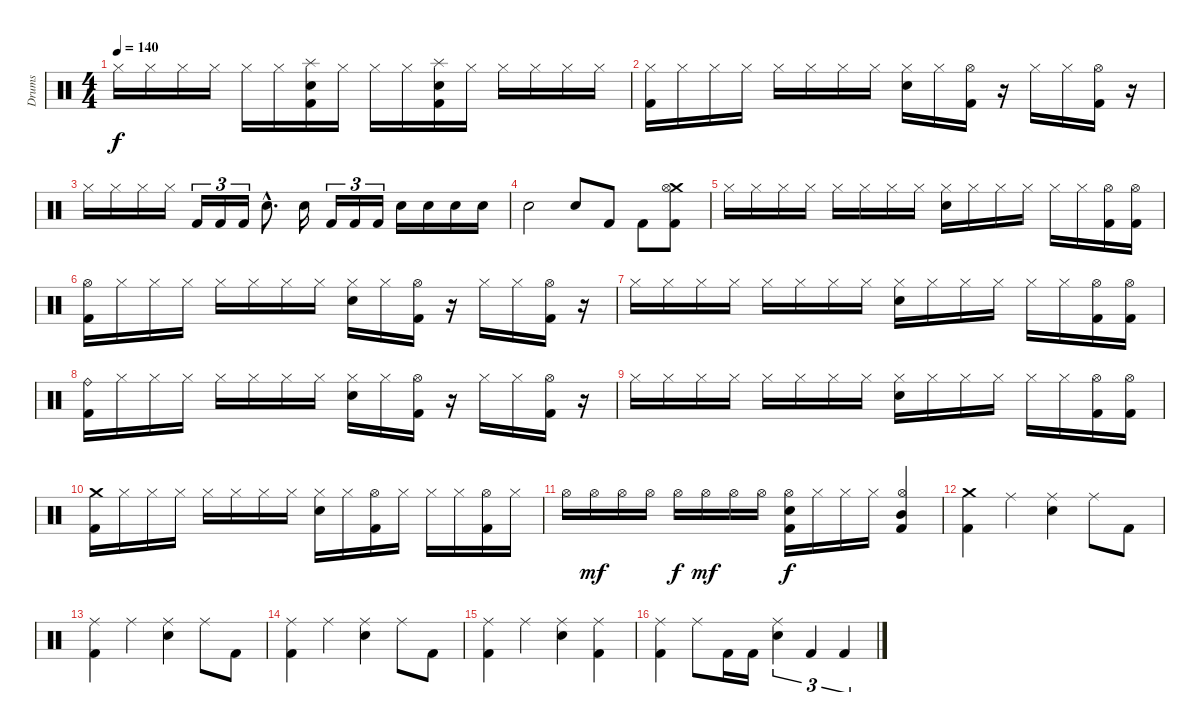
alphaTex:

\track ("Drums" "Drums") {instrument percussion}
\staff {score}
\articulation defaults
\ts (4 4)
\tempo 140
\clef neutral
\ks c "Hi-Hat (closed)".16{dy f} "Hi-Hat (closed)".16 "Hi-Hat (closed)".16 "Hi-Hat (closed)".16 "Hi-Hat (closed)".16 "Hi-Hat (closed)".16
("Splash (hit)" "Electric Snare (hit)" "Kick (hit) 2").16 "Hi-Hat (closed)".16 "Hi-Hat (closed)".16 "Hi-Hat (closed)".16 ("Splash (hit)" "Electric Snare (hit)" "Kick (hit) 2").16 "Hi-Hat (closed)".16 "Hi-Hat (closed)".16 "Hi-Hat (closed)".16 "Hi-Hat (closed)".16 "Hi-Hat (closed)".16 |
("Hi-Hat (closed)" "Kick (hit) 2").16 "Hi-Hat (closed)".16 "Hi-Hat (closed)".16 "Hi-Hat (closed)".16 "Hi-Hat (closed)".16 "Hi-Hat (closed)".16 "Hi-Hat (closed)".16 "Hi-Hat (closed)".16 ("Hi-Hat (closed)" "Electric Snare (hit)").16 "Hi-Hat (closed)".16 ("Hi-Hat (open)" "Kick (hit) 2").16 r.16 "Hi-Hat (closed)".16 "Hi-Hat (closed)".16 ("Hi-Hat (open)" "Kick (hit) 2").16 r.16 |
"Hi-Hat (closed)".16 "Hi-Hat (closed)".16 "Hi-Hat (closed)".16 "Hi-Hat (closed)".16 "Kick (hit) 2".16{tu (3 2)} "Kick (hit) 2".16{tu (3 2)} "Kick (hit) 2".16{tu (3 2)} "Electric Snare (hit)"{hac}.8{d} "Electric Snare (hit)".16 "Kick (hit) 2".16{tu (3 2)} "Kick (hit) 2".16{tu (3 2)} "Kick (hit) 2".16{tu (3 2)} "Electric Snare (hit)".16 "Electric Snare (hit)".16 "Electric Snare (hit)".16 "Electric Snare (hit)".16 |
"Electric Snare (hit)".2 "Electric Snare (hit)".8 "Kick (hit) 2".8 "Kick (hit) 2".8 ("Crash medium (hit)" "Hi-Hat (open)" "Kick (hit) 2").8 |
"Hi-Hat (closed)".16 "Hi-Hat (closed)".16 "Hi-Hat (closed)".16 "Hi-Hat (closed)".16 "Hi-Hat (closed)".16 "Hi-Hat (closed)".16 "Hi-Hat (closed)".16 "Hi-Hat (closed)".16 ("Hi-Hat (closed)" "Electric Snare (hit)").16 "Hi-Hat (closed)".16 "Hi-Hat (closed)".16 "Hi-Hat (closed)".16 "Hi-Hat (closed)".16 "Hi-Hat (closed)".16 ("Hi-Hat (open)" "Kick (hit) 2").16 ("Hi-Hat (open)" "Kick (hit) 2").16 |
("Hi-Hat (open)" "Kick (hit) 2").16 "Hi-Hat (closed)".16 "Hi-Hat (closed)".16 "Hi-Hat (closed)".16 "Hi-Hat (closed)".16 "Hi-Hat (closed)".16 "Hi-Hat (closed)".16 "Hi-Hat (closed)".16 ("Hi-Hat (closed)" "Electric Snare (hit)").16 "Hi-Hat (closed)".16 ("Hi-Hat (open)" "Kick (hit) 2").16 r.16 "Hi-Hat (closed)".16 "Hi-Hat (closed)".16 ("Hi-Hat (open)" "Kick (hit) 2").16 r.16 |
"Hi-Hat (closed)".16 "Hi-Hat (closed)".16 "Hi-Hat (closed)".16 "Hi-Hat (closed)".16 "Hi-Hat (closed)".16 "Hi-Hat (closed)".16 "Hi-Hat (closed)".16 "Hi-Hat (closed)".16 ("Hi-Hat (closed)" "Electric Snare (hit)").16 "Hi-Hat (closed)".16 "Hi-Hat (closed)".16 "Hi-Hat (closed)".16 "Hi-Hat (closed)".16 "Hi-Hat (closed)".16 ("Hi-Hat (open)" "Kick (hit) 2").16 ("Hi-Hat (open)" "Kick (hit) 2").16 |
("Ride (bell)" "Kick (hit) 2").16 "Hi-Hat (closed)".16 "Hi-Hat (closed)".16 "Hi-Hat (closed)".16 "Hi-Hat (closed)".16 "Hi-Hat (closed)".16 "Hi-Hat (closed)".16 "Hi-Hat (closed)".16 ("Hi-Hat (closed)" "Electric Snare (hit)").16 "Hi-Hat (closed)".16 ("Hi-Hat (open)" "Kick (hit) 2").16 r.16 "Hi-Hat (closed)".16 "Hi-Hat (closed)".16 ("Hi-Hat (open)" "Kick (hit) 2").16 r.16 |
"Hi-Hat (closed)".16 "Hi-Hat (closed)".16 "Hi-Hat (closed)".16 "Hi-Hat (closed)".16 "Hi-Hat (closed)".16 "Hi-Hat (closed)".16 "Hi-Hat (closed)".16 "Hi-Hat (closed)".16 ("Hi-Hat (closed)" "Electric Snare (hit)").16 "Hi-Hat (closed)".16 "Hi-Hat (closed)".16 "Hi-Hat (closed)".16 "Hi-Hat (closed)".16 "Hi-Hat (closed)".16 ("Hi-Hat (open)" "Kick (hit) 2").16 ("Hi-Hat (open)" "Kick (hit) 2").16 |
("Crash medium (hit)" "Kick (hit) 2").16 "Hi-Hat (closed)".16 "Hi-Hat (closed)".16 "Hi-Hat (closed)".16 "Hi-Hat (closed)".16 "Hi-Hat (closed)".16 "Hi-Hat (closed)".16 "Hi-Hat (closed)".16 ("Hi-Hat (closed)" "Electric Snare (hit)").16 "Hi-Hat (closed)".16 ("Hi-Hat (open)" "Kick (hit) 2").16 "Hi-Hat (closed)".16 "Hi-Hat (closed)".16 "Hi-Hat (closed)".16 ("Hi-Hat (open)" "Kick (hit) 2").16 "Hi-Hat (closed)".16 |
"Hi-Hat (open)".16 "Hi-Hat (open)".16{dy mf} "Hi-Hat (open)".16 "Hi-Hat (open)".16 "Hi-Hat (open)".16{dy f} "Hi-Hat (open)".16{dy mf} "Hi-Hat (open)".16 "Hi-Hat (open)".16 ("Hi-Hat (open)" "Electric Snare (hit)" "Kick (hit) 2").16{dy f} "Hi-Hat (closed)".16 "Hi-Hat (closed)".16 "Hi-Hat (closed)".16 ("Hi-Hat (open)" "Mid Tom (hit)" "Kick (hit) 2").4 |
("Crash medium (hit)" "Kick (hit) 2").4 "Ride (middle)".4 ("Ride (middle)" "Electric Snare (hit)").4 "Ride (middle)".8 "Kick (hit) 2".8 |
("Ride (middle)" "Kick (hit) 2").4 "Ride (middle)".4 ("Ride (middle)" "Electric Snare (hit)").4 "Ride (middle)".8 "Kick (hit) 2".8 |
("Ride (middle)" "Kick (hit) 2").4 "Ride (middle)".4 ("Ride (middle)" "Electric Snare (hit)").4 "Ride (middle)".8 "Kick (hit) 2".8 |
("Ride (middle)" "Kick (hit) 2").4 "Ride (middle)".4 ("Ride (middle)" "Electric Snare (hit)").4 ("Ride (middle)" "Kick (hit) 2").4 |
("Ride (middle)" "Kick (hit) 2").4 "Ride (middle)".8 "Kick (hit) 2".16 "Kick (hit) 2".16 ("Ride (middle)" "Electric Snare (hit)").4{tu (3 2)} "Kick (hit) 2".4{tu (3 2)} "Kick (hit) 2".4{tu (3 2)}
